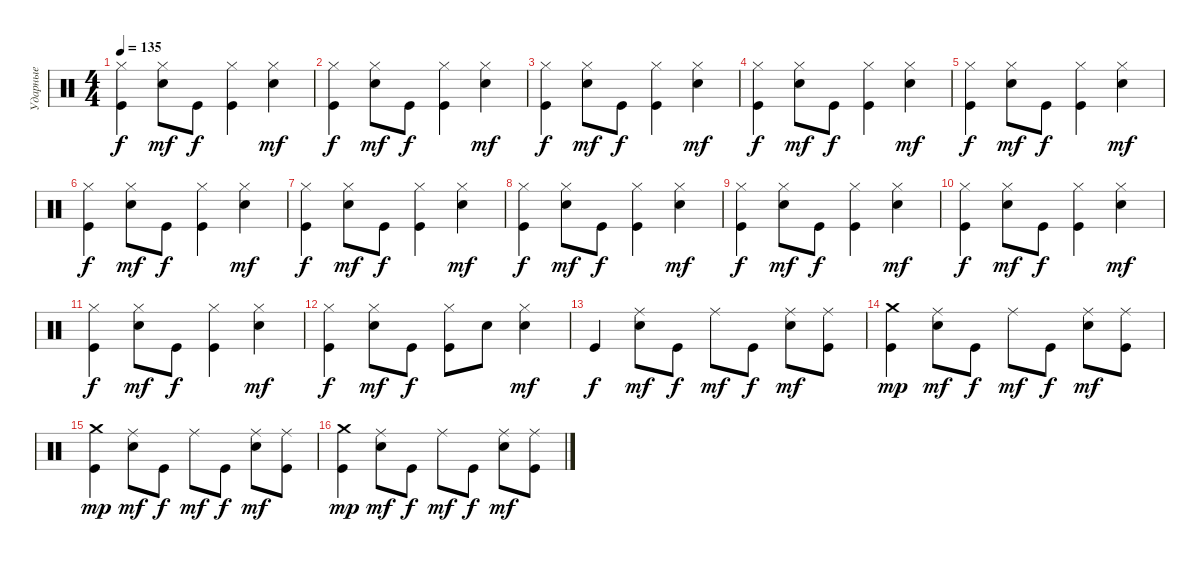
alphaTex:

\track ("Ударные" "Ударные") {instrument percussion}
\staff {score}
\articulation defaults
\ts (4 4)
\tempo 135
\clef neutral
\ks c
("Hi-Hat (closed)" "Kick (hit)").4{dy f} ("Hi-Hat (closed)" "Electric Snare (hit)").8{dy mf} "Kick (hit)".8{dy f} ("Hi-Hat (closed)" "Kick (hit)").4 ("Hi-Hat (closed)" "Electric Snare (hit)").4{dy mf} |
("Hi-Hat (closed)" "Kick (hit)").4{dy f} ("Hi-Hat (closed)" "Electric Snare (hit)").8{dy mf} "Kick (hit)".8{dy f} ("Hi-Hat (closed)" "Kick (hit)").4 ("Hi-Hat (closed)" "Electric Snare (hit)").4{dy mf} |
("Hi-Hat (closed)" "Kick (hit)").4{dy f} ("Hi-Hat (closed)" "Electric Snare (hit)").8{dy mf} "Kick (hit)".8{dy f} ("Hi-Hat (closed)" "Kick (hit)").4 ("Hi-Hat (closed)" "Electric Snare (hit)").4{dy mf} |
("Hi-Hat (closed)" "Kick (hit)").4{dy f} ("Hi-Hat (closed)" "Electric Snare (hit)").8{dy mf} "Kick (hit)".8{dy f} ("Hi-Hat (closed)" "Kick (hit)").4 ("Hi-Hat (closed)" "Electric Snare (hit)").4{dy mf} |
("Hi-Hat (closed)" "Kick (hit)").4{dy f} ("Hi-Hat (closed)" "Electric Snare (hit)").8{dy mf} "Kick (hit)".8{dy f} ("Hi-Hat (closed)" "Kick (hit)").4 ("Hi-Hat (closed)" "Electric Snare (hit)").4{dy mf} |
("Hi-Hat (closed)" "Kick (hit)").4{dy f} ("Hi-Hat (closed)" "Electric Snare (hit)").8{dy mf} "Kick (hit)".8{dy f} ("Hi-Hat (closed)" "Kick (hit)").4 ("Hi-Hat (closed)" "Electric Snare (hit)").4{dy mf} |
("Hi-Hat (closed)" "Kick (hit)").4{dy f} ("Hi-Hat (closed)" "Electric Snare (hit)").8{dy mf} "Kick (hit)".8{dy f} ("Hi-Hat (closed)" "Kick (hit)").4 ("Hi-Hat (closed)" "Electric Snare (hit)").4{dy mf} |
("Hi-Hat (closed)" "Kick (hit)").4{dy f} ("Hi-Hat (closed)" "Electric Snare (hit)").8{dy mf} "Kick (hit)".8{dy f} ("Hi-Hat (closed)" "Kick (hit)").4 ("Hi-Hat (closed)" "Electric Snare (hit)").4{dy mf} |
("Hi-Hat (closed)" "Kick (hit)").4{dy f} ("Hi-Hat (closed)" "Electric Snare (hit)").8{dy mf} "Kick (hit)".8{dy f} ("Hi-Hat (closed)" "Kick (hit)").4 ("Hi-Hat (closed)" "Electric Snare (hit)").4{dy mf} |
("Hi-Hat (closed)" "Kick (hit)").4{dy f} ("Hi-Hat (closed)" "Electric Snare (hit)").8{dy mf} "Kick (hit)".8{dy f} ("Hi-Hat (closed)" "Kick (hit)").4 ("Hi-Hat (closed)" "Electric Snare (hit)").4{dy mf} |
("Hi-Hat (closed)" "Kick (hit)").4{dy f} ("Hi-Hat (closed)" "Electric Snare (hit)").8{dy mf} "Kick (hit)".8{dy f} ("Hi-Hat (closed)" "Kick (hit)").4 ("Hi-Hat (closed)" "Electric Snare (hit)").4{dy mf} |
("Hi-Hat (closed)" "Kick (hit)").4{dy f} ("Hi-Hat (closed)" "Electric Snare (hit)").8{dy mf} "Kick (hit)".8{dy f} ("Hi-Hat (closed)" "Kick (hit)").8 "Electric Snare (hit)".8 ("Hi-Hat (closed)" "Electric Snare (hit)").4{dy mf} |
"Kick (hit)".4{dy f} ("Ride (middle)" "Electric Snare (hit)").8{dy mf} "Kick (hit)".8{dy f} "Ride (middle)".8{dy mf} "Kick (hit)".8{dy f} ("Ride (middle)" "Electric Snare (hit)").8{dy mf} ("Ride (middle)" "Kick (hit)").8 |
("Crash medium (hit)" "Kick (hit)").4{dy mp} ("Ride (middle)" "Electric Snare (hit)").8{dy mf} "Kick (hit)".8{dy f} "Ride (middle)".8{dy mf} "Kick (hit)".8{dy f} ("Ride (middle)" "Electric Snare (hit)").8{dy mf} ("Ride (middle)" "Kick (hit)").8 |
("Crash medium (hit)" "Kick (hit)").4{dy mp} ("Ride (middle)" "Electric Snare (hit)").8{dy mf} "Kick (hit)".8{dy f} "Ride (middle)".8{dy mf} "Kick (hit)".8{dy f} ("Ride (middle)" "Electric Snare (hit)").8{dy mf} ("Ride (middle)" "Kick (hit)").8 |
("Crash medium (hit)" "Kick (hit)").4{dy mp} ("Ride (middle)" "Electric Snare (hit)").8{dy mf} "Kick (hit)".8{dy f} "Ride (middle)".8{dy mf} "Kick (hit)".8{dy f} ("Ride (middle)" "Electric Snare (hit)").8{dy mf} ("Ride (middle)" "Kick (hit)").8
